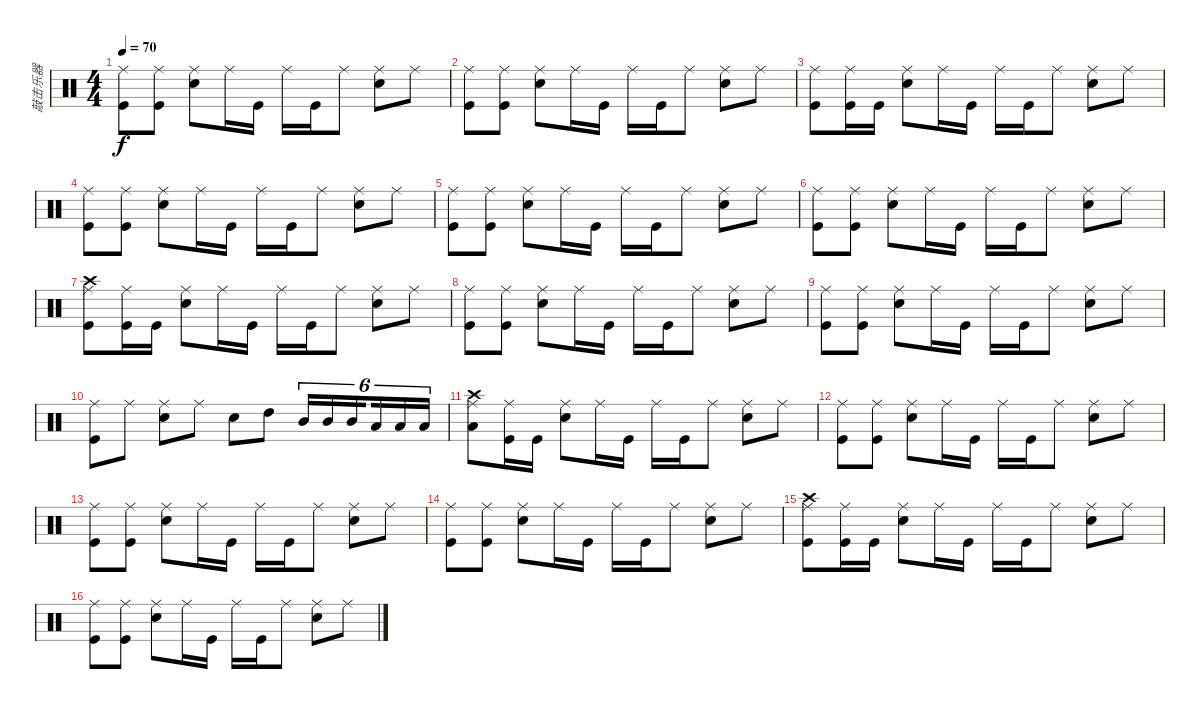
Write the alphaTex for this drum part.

\track ("敲击乐器" "敲击乐器") {instrument percussion}
\staff {score}
\articulation defaults
\ts (4 4)
\tempo 70
\clef neutral
\ks c
("Ride (middle)" "Kick (hit)").8{dy f} ("Ride (middle)" "Kick (hit)").8 ("Ride (middle)" "Electric Snare (hit)").8 "Ride (middle)".16 "Kick (hit)".16 "Ride (middle)".16 "Kick (hit)".16 "Ride (middle)".8 ("Ride (middle)" "Electric Snare (hit)").8 "Ride (middle)".8 |
("Ride (middle)" "Kick (hit)").8 ("Ride (middle)" "Kick (hit)").8 ("Ride (middle)" "Electric Snare (hit)").8 "Ride (middle)".16 "Kick (hit)".16 "Ride (middle)".16 "Kick (hit)".16 "Ride (middle)".8 ("Ride (middle)" "Electric Snare (hit)").8 "Ride (middle)".8 |
("Ride (middle)" "Kick (hit)").8 ("Ride (middle)" "Kick (hit)").16 "Kick (hit)".16 ("Ride (middle)" "Electric Snare (hit)").8 "Ride (middle)".16 "Kick (hit)".16 "Ride (middle)".16 "Kick (hit)".16 "Ride (middle)".8 ("Ride (middle)" "Electric Snare (hit)").8 "Ride (middle)".8 |
("Ride (middle)" "Kick (hit)").8 ("Ride (middle)" "Kick (hit)").8 ("Ride (middle)" "Electric Snare (hit)").8 "Ride (middle)".16 "Kick (hit)".16 "Ride (middle)".16 "Kick (hit)".16 "Ride (middle)".8 ("Ride (middle)" "Electric Snare (hit)").8 "Ride (middle)".8 |
("Ride (middle)" "Kick (hit)").8 ("Ride (middle)" "Kick (hit)").8 ("Ride (middle)" "Electric Snare (hit)").8 "Ride (middle)".16 "Kick (hit)".16 "Ride (middle)".16 "Kick (hit)".16 "Ride (middle)".8 ("Ride (middle)" "Electric Snare (hit)").8 "Ride (middle)".8 |
("Ride (middle)" "Kick (hit)").8 ("Ride (middle)" "Kick (hit)").8 ("Ride (middle)" "Electric Snare (hit)").8 "Ride (middle)".16 "Kick (hit)".16 "Ride (middle)".16 "Kick (hit)".16 "Ride (middle)".8 ("Ride (middle)" "Electric Snare (hit)").8 "Ride (middle)".8 |
("Ride (middle)" "Crash high (hit)" "Kick (hit)").8 ("Ride (middle)" "Kick (hit)").16 "Kick (hit)".16 ("Ride (middle)" "Electric Snare (hit)").8 "Ride (middle)".16 "Kick (hit)".16 "Ride (middle)".16 "Kick (hit)".16 "Ride (middle)".8 ("Ride (middle)" "Electric Snare (hit)").8 "Ride (middle)".8 |
("Ride (middle)" "Kick (hit)").8 ("Ride (middle)" "Kick (hit)").8 ("Ride (middle)" "Electric Snare (hit)").8 "Ride (middle)".16 "Kick (hit)".16 "Ride (middle)".16 "Kick (hit)".16 "Ride (middle)".8 ("Ride (middle)" "Electric Snare (hit)").8 "Ride (middle)".8 |
("Ride (middle)" "Kick (hit)").8 ("Ride (middle)" "Kick (hit)").8 ("Ride (middle)" "Electric Snare (hit)").8 "Ride (middle)".16 "Kick (hit)".16 "Ride (middle)".16 "Kick (hit)".16 "Ride (middle)".8 ("Ride (middle)" "Electric Snare (hit)").8 "Ride (middle)".8 |
("Ride (middle)" "Kick (hit)").8 "Ride (middle)".8 ("Ride (middle)" "Electric Snare (hit)").8 "Ride (middle)".8 "Snare (hit) 2".8 "High Tom (hit)".8 "Mid Tom (hit)".16{tu (6 4)} "Mid Tom (hit)".16{tu (6 4)} "Mid Tom (hit)".16{tu (6 4) beam splitsecondary} "Low Tom (hit)".16{tu (6 4)} "Low Tom (hit)".16{tu (6 4)} "Low Tom (hit)".16{tu (6 4)} |
("Ride (middle)" "Crash high (hit)" "Low Tom (hit)").8 ("Ride (middle)" "Kick (hit)").16 "Kick (hit)".16 ("Ride (middle)" "Electric Snare (hit)").8 "Ride (middle)".16 "Kick (hit)".16 "Ride (middle)".16 "Kick (hit)".16 "Ride (middle)".8 ("Ride (middle)" "Electric Snare (hit)").8 "Ride (middle)".8 |
("Ride (middle)" "Kick (hit)").8 ("Ride (middle)" "Kick (hit)").8 ("Ride (middle)" "Electric Snare (hit)").8 "Ride (middle)".16 "Kick (hit)".16 "Ride (middle)".16 "Kick (hit)".16 "Ride (middle)".8 ("Ride (middle)" "Electric Snare (hit)").8 "Ride (middle)".8 |
("Ride (middle)" "Kick (hit)").8 ("Ride (middle)" "Kick (hit)").8 ("Ride (middle)" "Electric Snare (hit)").8 "Ride (middle)".16 "Kick (hit)".16 "Ride (middle)".16 "Kick (hit)".16 "Ride (middle)".8 ("Ride (middle)" "Electric Snare (hit)").8 "Ride (middle)".8 |
("Ride (middle)" "Kick (hit)").8 ("Ride (middle)" "Kick (hit)").8 ("Ride (middle)" "Electric Snare (hit)").8 "Ride (middle)".16 "Kick (hit)".16 "Ride (middle)".16 "Kick (hit)".16 "Ride (middle)".8 ("Ride (middle)" "Electric Snare (hit)").8 "Ride (middle)".8 |
("Ride (middle)" "Crash high (hit)" "Kick (hit)").8 ("Ride (middle)" "Kick (hit)").16 "Kick (hit)".16 ("Ride (middle)" "Electric Snare (hit)").8 "Ride (middle)".16 "Kick (hit)".16 "Ride (middle)".16 "Kick (hit)".16 "Ride (middle)".8 ("Ride (middle)" "Electric Snare (hit)").8 "Ride (middle)".8 |
("Ride (middle)" "Kick (hit)").8 ("Ride (middle)" "Kick (hit)").8 ("Ride (middle)" "Electric Snare (hit)").8 "Ride (middle)".16 "Kick (hit)".16 "Ride (middle)".16 "Kick (hit)".16 "Ride (middle)".8 ("Ride (middle)" "Electric Snare (hit)").8 "Ride (middle)".8
